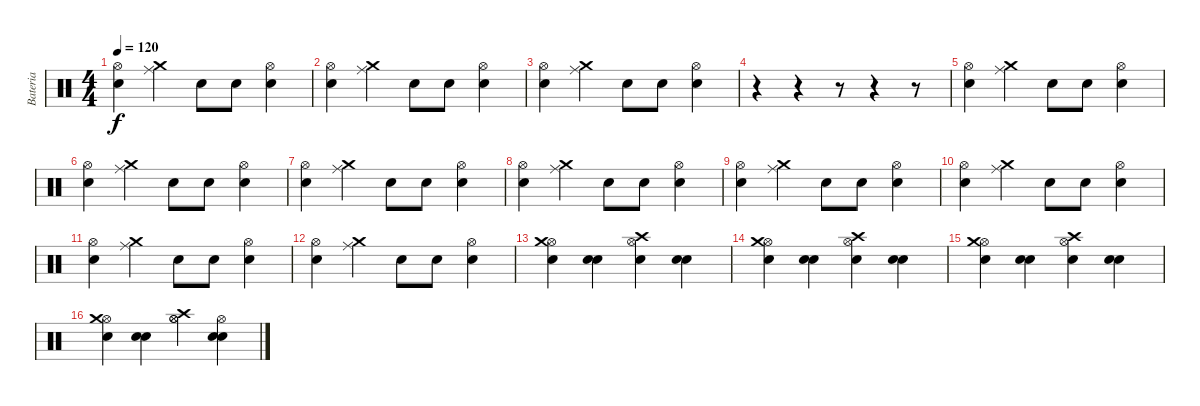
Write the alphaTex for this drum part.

\track ("Bateria" "Bateria") {instrument percussion}
\staff {score}
\articulation defaults
\ts (4 4)
\tempo 120
\clef neutral
\ks c
("Electric Snare (hit)" "Hi-Hat (open)").4{dy f} ("Ride (middle)" "Crash medium (hit)").4 "Electric Snare (hit)".8 "Electric Snare (hit)".8 ("Electric Snare (hit)" "Hi-Hat (open)").4 |
("Electric Snare (hit)" "Hi-Hat (open)").4 ("Ride (middle)" "Crash medium (hit)").4 "Electric Snare (hit)".8 "Electric Snare (hit)".8 ("Electric Snare (hit)" "Hi-Hat (open)").4 |
("Electric Snare (hit)" "Hi-Hat (open)").4 ("Ride (middle)" "Crash medium (hit)").4 "Electric Snare (hit)".8 "Electric Snare (hit)".8 ("Electric Snare (hit)" "Hi-Hat (open)").4 |
r.4 r.4 r.8 r.4 r.8 |
("Electric Snare (hit)" "Hi-Hat (open)").4 ("Ride (middle)" "Crash medium (hit)").4 "Electric Snare (hit)".8 "Electric Snare (hit)".8 ("Electric Snare (hit)" "Hi-Hat (open)").4 |
("Electric Snare (hit)" "Hi-Hat (open)").4 ("Ride (middle)" "Crash medium (hit)").4 "Electric Snare (hit)".8 "Electric Snare (hit)".8 ("Electric Snare (hit)" "Hi-Hat (open)").4 |
("Electric Snare (hit)" "Hi-Hat (open)").4 ("Ride (middle)" "Crash medium (hit)").4 "Electric Snare (hit)".8 "Electric Snare (hit)".8 ("Electric Snare (hit)" "Hi-Hat (open)").4 |
("Electric Snare (hit)" "Hi-Hat (open)").4 ("Ride (middle)" "Crash medium (hit)").4 "Electric Snare (hit)".8 "Electric Snare (hit)".8 ("Electric Snare (hit)" "Hi-Hat (open)").4 |
("Electric Snare (hit)" "Hi-Hat (open)").4 ("Ride (middle)" "Crash medium (hit)").4 "Electric Snare (hit)".8 "Electric Snare (hit)".8 ("Electric Snare (hit)" "Hi-Hat (open)").4 |
("Electric Snare (hit)" "Hi-Hat (open)").4 ("Ride (middle)" "Crash medium (hit)").4 "Electric Snare (hit)".8 "Electric Snare (hit)".8 ("Electric Snare (hit)" "Hi-Hat (open)").4 |
("Electric Snare (hit)" "Hi-Hat (open)").4 ("Ride (middle)" "Crash medium (hit)").4 "Electric Snare (hit)".8 "Electric Snare (hit)".8 ("Electric Snare (hit)" "Hi-Hat (open)").4 |
("Electric Snare (hit)" "Hi-Hat (open)").4 ("Ride (middle)" "Crash medium (hit)").4 "Electric Snare (hit)".8 "Electric Snare (hit)".8 ("Electric Snare (hit)" "Hi-Hat (open)").4 |
("Hi-Hat (open)" "Electric Snare (hit)" "Crash medium (hit)").4 ("Electric Snare (hit)" "Electric Snare (hit)").4 ("Electric Snare (hit)" "Hi-Hat (open)" "Crash high (hit)").4 ("Electric Snare (hit)" "Electric Snare (hit)").4 |
("Hi-Hat (open)" "Electric Snare (hit)" "Crash medium (hit)").4 ("Electric Snare (hit)" "Electric Snare (hit)").4 ("Electric Snare (hit)" "Hi-Hat (open)" "Crash high (hit)").4 ("Electric Snare (hit)" "Electric Snare (hit)").4 |
("Hi-Hat (open)" "Electric Snare (hit)" "Crash medium (hit)").4 ("Electric Snare (hit)" "Electric Snare (hit)").4 ("Electric Snare (hit)" "Hi-Hat (open)" "Crash high (hit)").4 ("Electric Snare (hit)" "Electric Snare (hit)").4 |
("Hi-Hat (open)" "Electric Snare (hit)" "Crash medium (hit)").4 ("Electric Snare (hit)" "Electric Snare (hit)").4 ("Hi-Hat (open)" "Hi-Hat (open)" "Crash high (hit)").4 ("Hi-Hat (open)" "Electric Snare (hit)" "Electric Snare (hit)").4
